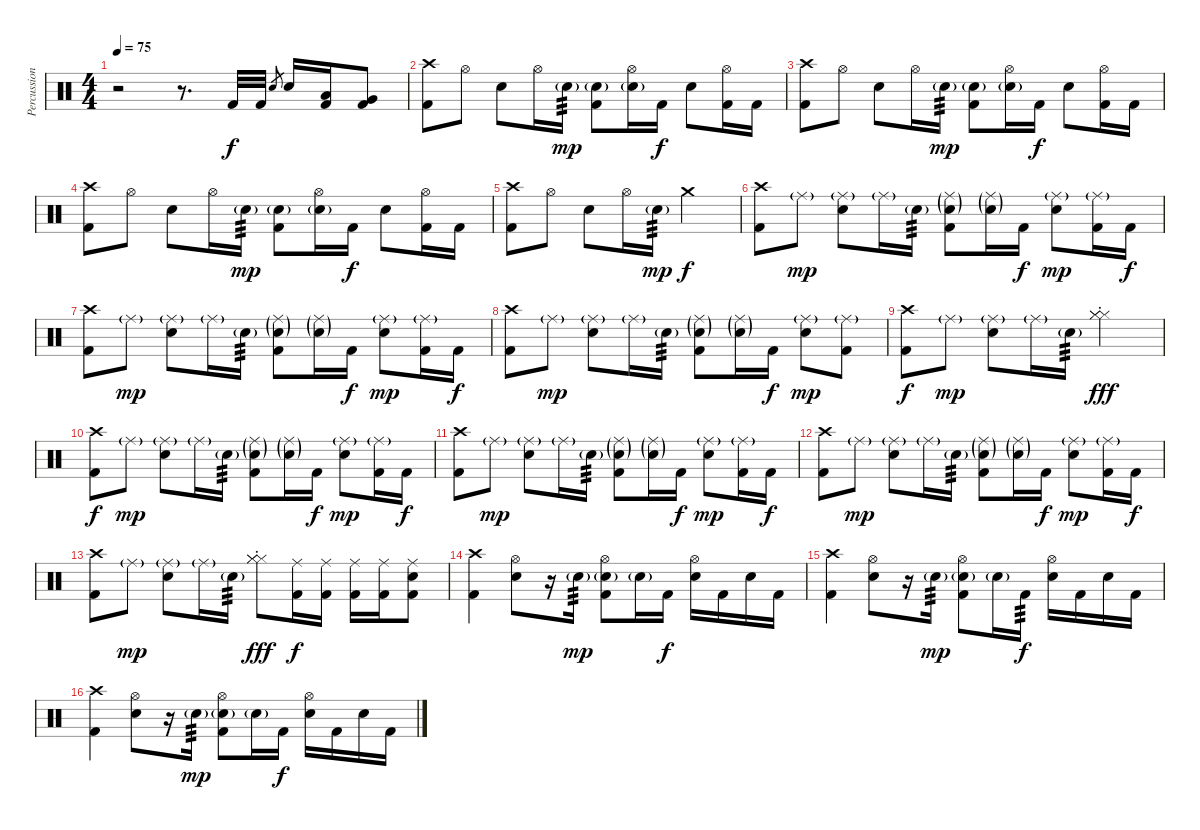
\track ("Percussion" "Percussion") {instrument percussion}
\staff {score}
\articulation defaults
\ts (4 4)
\tempo 75
\clef neutral
\ks c
r.2{dy f} r.8{d} "Kick (hit) 2".32 "Kick (hit) 2".32 "Electric Snare (hit)".8{gr} "Electric Snare (hit)".16 ("Low Tom (hit)" "Kick (hit) 2").16 ("Very Low Tom (hit)" "Kick (hit) 2").8 |
("Crash high (hit)" "Kick (hit) 2").8 "Hi-Hat (open)".8 "Electric Snare (hit)".8 "Hi-Hat (open)".16 "Electric Snare (hit)"{g}.16{tp 3 dy mp} ("Electric Snare (hit)"{g} "Kick (hit) 2").8 ("Hi-Hat (open)" "Electric Snare (hit)"{g}).16 "Kick (hit) 2".16{dy f} "Electric Snare (hit)".8 ("Hi-Hat (open)" "Kick (hit) 2").16 "Kick (hit) 2".16 |
("Crash high (hit)" "Kick (hit) 2").8 "Hi-Hat (open)".8 "Electric Snare (hit)".8 "Hi-Hat (open)".16 "Electric Snare (hit)"{g}.16{tp 3 dy mp} ("Electric Snare (hit)"{g} "Kick (hit) 2").8 ("Hi-Hat (open)" "Electric Snare (hit)"{g}).16 "Kick (hit) 2".16{dy f} "Electric Snare (hit)".8 ("Hi-Hat (open)" "Kick (hit) 2").16 "Kick (hit) 2".16 |
("Crash high (hit)" "Kick (hit) 2").8 "Hi-Hat (open)".8 "Electric Snare (hit)".8 "Hi-Hat (open)".16 "Electric Snare (hit)"{g}.16{tp 3 dy mp} ("Electric Snare (hit)"{g} "Kick (hit) 2").8 ("Hi-Hat (open)" "Electric Snare (hit)"{g}).16 "Kick (hit) 2".16{dy f} "Electric Snare (hit)".8 ("Hi-Hat (open)" "Kick (hit) 2").16 "Kick (hit) 2".16 |
("Crash high (hit)" "Kick (hit) 2").8 "Hi-Hat (open)".8 "Electric Snare (hit)".8 "Hi-Hat (open)".16 "Electric Snare (hit)"{g}.16{tp 3 dy mp} "Crash medium (hit)".2{dy f} |
("Crash high (hit)" "Kick (hit) 2").8 "Ride (middle)"{g}.8{dy mp} ("Ride (middle)"{g} "Electric Snare (hit)").8 "Ride (middle)"{g}.16 "Electric Snare (hit)"{g}.16{tp 3} ("Ride (middle)"{g} "Electric Snare (hit)"{g} "Kick (hit) 2").8 ("Ride (middle)"{g} "Electric Snare (hit)"{g}).16 "Kick (hit) 2".16{dy f} ("Ride (middle)"{g} "Electric Snare (hit)").8{dy mp} ("Ride (middle)"{g} "Kick (hit) 2").16 "Kick (hit) 2".16{dy f} |
("Crash high (hit)" "Kick (hit) 2").8 "Ride (middle)"{g}.8{dy mp} ("Ride (middle)"{g} "Electric Snare (hit)").8 "Ride (middle)"{g}.16 "Electric Snare (hit)"{g}.16{tp 3} ("Ride (middle)"{g} "Electric Snare (hit)"{g} "Kick (hit) 2").8 ("Ride (middle)"{g} "Electric Snare (hit)"{g}).16 "Kick (hit) 2".16{dy f} ("Ride (middle)"{g} "Electric Snare (hit)").8{dy mp} ("Ride (middle)"{g} "Kick (hit) 2").16 "Kick (hit) 2".16{dy f} |
("Crash high (hit)" "Kick (hit) 2").8 "Ride (middle)"{g}.8{dy mp} ("Ride (middle)"{g} "Electric Snare (hit)").8 "Ride (middle)"{g}.16 "Electric Snare (hit)"{g}.16{tp 3} ("Ride (middle)"{g} "Electric Snare (hit)"{g} "Kick (hit) 2").8 ("Ride (middle)"{g} "Electric Snare (hit)"{g}).16 "Kick (hit) 2".16{dy f} ("Ride (middle)"{g} "Electric Snare (hit)").8{dy mp} ("Ride (middle)"{g} "Kick (hit) 2").8 |
("Crash high (hit)" "Kick (hit) 2").8{dy f} "Ride (middle)"{g}.8{dy mp} ("Ride (middle)"{g} "Electric Snare (hit)").8 "Ride (middle)"{g}.16 "Electric Snare (hit)"{g}.16{tp 3} ("Hi-Hat (closed)" "Hi-Hat (closed)"{st} "Hi-Hat (closed)").2{dy fff} |
("Crash high (hit)" "Kick (hit) 2").8{dy f} "Ride (middle)"{g}.8{dy mp} ("Ride (middle)"{g} "Electric Snare (hit)").8 "Ride (middle)"{g}.16 "Electric Snare (hit)"{g}.16{tp 3} ("Ride (middle)"{g} "Electric Snare (hit)"{g} "Kick (hit) 2").8 ("Ride (middle)"{g} "Electric Snare (hit)"{g}).16 "Kick (hit) 2".16{dy f} ("Ride (middle)"{g} "Electric Snare (hit)").8{dy mp} ("Ride (middle)"{g} "Kick (hit) 2").16 "Kick (hit) 2".16{dy f} |
("Crash high (hit)" "Kick (hit) 2").8 "Ride (middle)"{g}.8{dy mp} ("Ride (middle)"{g} "Electric Snare (hit)").8 "Ride (middle)"{g}.16 "Electric Snare (hit)"{g}.16{tp 3} ("Ride (middle)"{g} "Electric Snare (hit)"{g} "Kick (hit) 2").8 ("Ride (middle)"{g} "Electric Snare (hit)"{g}).16 "Kick (hit) 2".16{dy f} ("Ride (middle)"{g} "Electric Snare (hit)").8{dy mp} ("Ride (middle)"{g} "Kick (hit) 2").16 "Kick (hit) 2".16{dy f} |
("Crash high (hit)" "Kick (hit) 2").8 "Ride (middle)"{g}.8{dy mp} ("Ride (middle)"{g} "Electric Snare (hit)").8 "Ride (middle)"{g}.16 "Electric Snare (hit)"{g}.16{tp 3} ("Ride (middle)"{g} "Electric Snare (hit)"{g} "Kick (hit) 2").8 ("Ride (middle)"{g} "Electric Snare (hit)"{g}).16 "Kick (hit) 2".16{dy f} ("Ride (middle)"{g} "Electric Snare (hit)").8{dy mp} ("Ride (middle)"{g} "Kick (hit) 2").16 "Kick (hit) 2".16{dy f} |
("Crash high (hit)" "Kick (hit) 2").8 "Ride (middle)"{g}.8{dy mp} ("Ride (middle)"{g} "Electric Snare (hit)").8 "Ride (middle)"{g}.16 "Electric Snare (hit)"{g}.16{tp 3} ("Hi-Hat (closed)" "Hi-Hat (closed)"{st} "Hi-Hat (closed)").8{dy fff} ("Ride (middle)" "Kick (hit) 2").16{dy f} ("Ride (middle)" "Kick (hit) 2").16 ("Ride (middle)" "Kick (hit) 2").16 ("Ride (middle)" "Kick (hit) 2").16 ("Ride (middle)" "Electric Snare (hit)" "Kick (hit) 2").8 |
("Crash high (hit)" "Kick (hit) 2").4 ("Hi-Hat (open)" "Electric Snare (hit)").8 r.16 "Electric Snare (hit)"{g}.16{tp 3 dy mp} ("Hi-Hat (open)" "Electric Snare (hit)"{g} "Kick (hit) 2").8 "Electric Snare (hit)"{g}.16 "Kick (hit) 2".16{dy f} ("Hi-Hat (open)" "Electric Snare (hit)").16 "Kick (hit) 2".16 "Electric Snare (hit)".16 "Kick (hit) 2".16 |
("Crash high (hit)" "Kick (hit) 2").4 ("Hi-Hat (open)" "Electric Snare (hit)").8 r.16 "Electric Snare (hit)"{g}.16{tp 3 dy mp} ("Hi-Hat (open)" "Electric Snare (hit)"{g} "Kick (hit) 2").8 "Electric Snare (hit)"{g}.16 "Kick (hit) 2".16{tp 3 dy f} ("Hi-Hat (open)" "Electric Snare (hit)").16 "Kick (hit) 2".16 "Electric Snare (hit)".16 "Kick (hit) 2".16 |
("Crash high (hit)" "Kick (hit) 2").4 ("Hi-Hat (open)" "Electric Snare (hit)").8 r.16 "Electric Snare (hit)"{g}.16{tp 3 dy mp} ("Hi-Hat (open)" "Electric Snare (hit)"{g} "Kick (hit) 2").8 "Electric Snare (hit)"{g}.16 "Kick (hit) 2".16{dy f} ("Hi-Hat (open)" "Electric Snare (hit)").16 "Kick (hit) 2".16 "Electric Snare (hit)".16 "Kick (hit) 2".16
